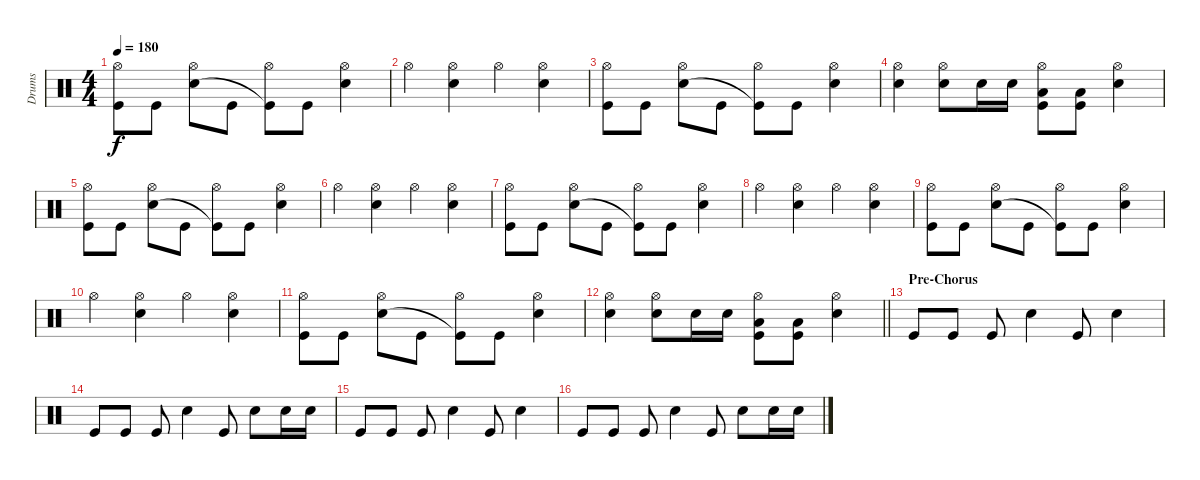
\track ("Drums" "Drums") {instrument percussion}
\staff {score}
\articulation defaults
\ts (4 4)
\tempo 180
\clef neutral
\ks c
("Hi-Hat (open)" "Kick (hit)").8{dy f} "Kick (hit)".8 ("Hi-Hat (open)" "Snare (hit) 2").8 "Kick (hit)".8 ("Hi-Hat (open)" "Kick (hit)"{t}).8 "Kick (hit)".8 ("Hi-Hat (open)" "Snare (hit) 2").4 |
"Hi-Hat (open)".4 ("Hi-Hat (open)" "Snare (hit) 2").4 "Hi-Hat (open)".4 ("Hi-Hat (open)" "Snare (hit) 2").4 |
("Hi-Hat (open)" "Kick (hit)").8 "Kick (hit)".8 ("Hi-Hat (open)" "Snare (hit) 2").8 "Kick (hit)".8 ("Hi-Hat (open)" "Kick (hit)"{t}).8 "Kick (hit)".8 ("Hi-Hat (open)" "Snare (hit) 2").4 |
("Hi-Hat (open)" "Snare (hit) 2").4 ("Hi-Hat (open)" "Snare (hit) 2").8 "Snare (hit) 2".16 "Snare (hit) 2".16 ("Hi-Hat (open)" "Low Tom (hit)" "Kick (hit)").8 ("Low Tom (hit)" "Kick (hit)").8 ("Hi-Hat (open)" "Snare (hit) 2").4 |
("Hi-Hat (open)" "Kick (hit)").8 "Kick (hit)".8 ("Hi-Hat (open)" "Snare (hit) 2").8 "Kick (hit)".8 ("Hi-Hat (open)" "Kick (hit)"{t}).8 "Kick (hit)".8 ("Hi-Hat (open)" "Snare (hit) 2").4 |
"Hi-Hat (open)".4 ("Hi-Hat (open)" "Snare (hit) 2").4 "Hi-Hat (open)".4 ("Hi-Hat (open)" "Snare (hit) 2").4 |
("Hi-Hat (open)" "Kick (hit)").8 "Kick (hit)".8 ("Hi-Hat (open)" "Snare (hit) 2").8 "Kick (hit)".8 ("Hi-Hat (open)" "Kick (hit)"{t}).8 "Kick (hit)".8 ("Hi-Hat (open)" "Snare (hit) 2").4 |
"Hi-Hat (open)".4 ("Hi-Hat (open)" "Snare (hit) 2").4 "Hi-Hat (open)".4 ("Hi-Hat (open)" "Snare (hit) 2").4 |
("Hi-Hat (open)" "Kick (hit)").8 "Kick (hit)".8 ("Hi-Hat (open)" "Snare (hit) 2").8 "Kick (hit)".8 ("Hi-Hat (open)" "Kick (hit)"{t}).8 "Kick (hit)".8 ("Hi-Hat (open)" "Snare (hit) 2").4 |
"Hi-Hat (open)".4 ("Hi-Hat (open)" "Snare (hit) 2").4 "Hi-Hat (open)".4 ("Hi-Hat (open)" "Snare (hit) 2").4 |
("Hi-Hat (open)" "Kick (hit)").8 "Kick (hit)".8 ("Hi-Hat (open)" "Snare (hit) 2").8 "Kick (hit)".8 ("Hi-Hat (open)" "Kick (hit)"{t}).8 "Kick (hit)".8 ("Hi-Hat (open)" "Snare (hit) 2").4 |
\barLineRight lightlight
("Hi-Hat (open)" "Snare (hit) 2").4 ("Hi-Hat (open)" "Snare (hit) 2").8 "Snare (hit) 2".16 "Snare (hit) 2".16 ("Hi-Hat (open)" "Low Tom (hit)" "Kick (hit)").8 ("Low Tom (hit)" "Kick (hit)").8 ("Hi-Hat (open)" "Snare (hit) 2").4 |
\section ("" "Pre-Chorus")
"Kick (hit)".8 "Kick (hit)".8 "Kick (hit)".8 "Snare (hit) 2".4 "Kick (hit)".8 "Snare (hit) 2".4 |
"Kick (hit)".8 "Kick (hit)".8 "Kick (hit)".8 "Snare (hit) 2".4 "Kick (hit)".8 "Snare (hit) 2".8 "Snare (hit) 2".16 "Snare (hit) 2".16 |
"Kick (hit)".8 "Kick (hit)".8 "Kick (hit)".8 "Snare (hit) 2".4 "Kick (hit)".8 "Snare (hit) 2".4 |
"Kick (hit)".8 "Kick (hit)".8 "Kick (hit)".8 "Snare (hit) 2".4 "Kick (hit)".8 "Snare (hit) 2".8 "Snare (hit) 2".16 "Snare (hit) 2".16
